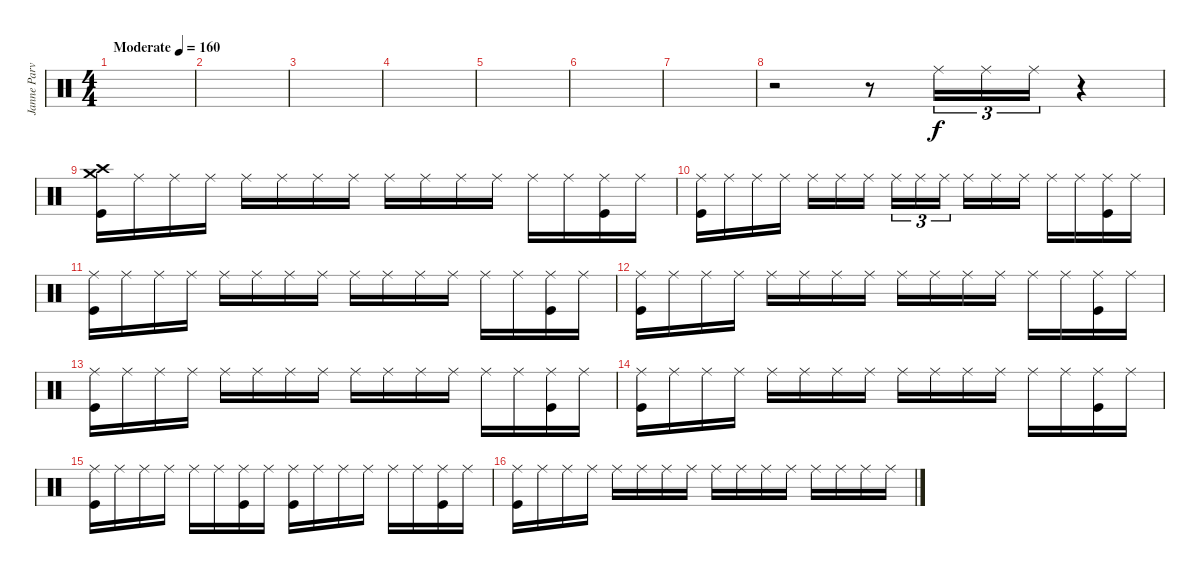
\track ("Janne Parviainen" "Janne Parv") {instrument percussion}
\staff {score}
\articulation defaults
\ts (4 4)
\tempo (160 "Moderate")
\clef neutral
\ks c
|
|
|
|
|
|
|
r.2 r.8 "Ride (middle)".16{tu (3 2)} "Ride (middle)".16{tu (3 2)} "Ride (middle)".16{tu (3 2)} r.4 |
("Crash high (hit)" "Crash medium (hit)" "Kick (hit)").16 "Ride (middle)".16 "Ride (middle)".16 "Ride (middle)".16 "Ride (middle)".16 "Ride (middle)".16 "Ride (middle)".16 "Ride (middle)".16 "Ride (middle)".16 "Ride (middle)".16 "Ride (middle)".16 "Ride (middle)".16 "Ride (middle)".16 "Ride (middle)".16 ("Ride (middle)" "Kick (hit)").16 "Ride (middle)".16 |
("Ride (middle)" "Kick (hit)").16 "Ride (middle)".16 "Ride (middle)".16 "Ride (middle)".16 "Ride (middle)".16 "Ride (middle)".16 "Ride (middle)".16{beam splitsecondary} "Ride (middle)".16{tu (3 2)} "Ride (middle)".16{tu (3 2)} "Ride (middle)".16{tu (3 2) beam splitsecondary} "Ride (middle)".16 "Ride (middle)".16 "Ride (middle)".16 "Ride (middle)".16 "Ride (middle)".16 ("Ride (middle)" "Kick (hit)").16 "Ride (middle)".16 |
("Ride (middle)" "Kick (hit)").16 "Ride (middle)".16 "Ride (middle)".16 "Ride (middle)".16 "Ride (middle)".16 "Ride (middle)".16 "Ride (middle)".16 "Ride (middle)".16 "Ride (middle)".16 "Ride (middle)".16 "Ride (middle)".16 "Ride (middle)".16 "Ride (middle)".16 "Ride (middle)".16 ("Ride (middle)" "Kick (hit)").16 "Ride (middle)".16 |
("Ride (middle)" "Kick (hit)").16 "Ride (middle)".16 "Ride (middle)".16 "Ride (middle)".16 "Ride (middle)".16 "Ride (middle)".16 "Ride (middle)".16 "Ride (middle)".16 "Ride (middle)".16 "Ride (middle)".16 "Ride (middle)".16 "Ride (middle)".16 "Ride (middle)".16 "Ride (middle)".16 ("Ride (middle)" "Kick (hit)").16 "Ride (middle)".16 |
("Ride (middle)" "Kick (hit)").16 "Ride (middle)".16 "Ride (middle)".16 "Ride (middle)".16 "Ride (middle)".16 "Ride (middle)".16 "Ride (middle)".16 "Ride (middle)".16 "Ride (middle)".16 "Ride (middle)".16 "Ride (middle)".16 "Ride (middle)".16 "Ride (middle)".16 "Ride (middle)".16 ("Ride (middle)" "Kick (hit)").16 "Ride (middle)".16 |
("Ride (middle)" "Kick (hit)").16 "Ride (middle)".16 "Ride (middle)".16 "Ride (middle)".16 "Ride (middle)".16 "Ride (middle)".16 "Ride (middle)".16 "Ride (middle)".16 "Ride (middle)".16 "Ride (middle)".16 "Ride (middle)".16 "Ride (middle)".16 "Ride (middle)".16 "Ride (middle)".16 ("Ride (middle)" "Kick (hit)").16 "Ride (middle)".16 |
("Ride (middle)" "Kick (hit)").16 "Ride (middle)".16 "Ride (middle)".16 "Ride (middle)".16 "Ride (middle)".16 "Ride (middle)".16 ("Ride (middle)" "Kick (hit)").16 "Ride (middle)".16 ("Ride (middle)" "Kick (hit)").16 "Ride (middle)".16 "Ride (middle)".16 "Ride (middle)".16 "Ride (middle)".16 "Ride (middle)".16 ("Ride (middle)" "Kick (hit)").16 "Ride (middle)".16 |
("Ride (middle)" "Kick (hit)").16 "Ride (middle)".16 "Ride (middle)".16 "Ride (middle)".16 "Ride (middle)".16 "Ride (middle)".16 "Ride (middle)".16 "Ride (middle)".16 "Ride (middle)".16 "Ride (middle)".16 "Ride (middle)".16 "Ride (middle)".16 "Ride (middle)".16 "Ride (middle)".16 "Ride (middle)".16 "Ride (middle)".16
